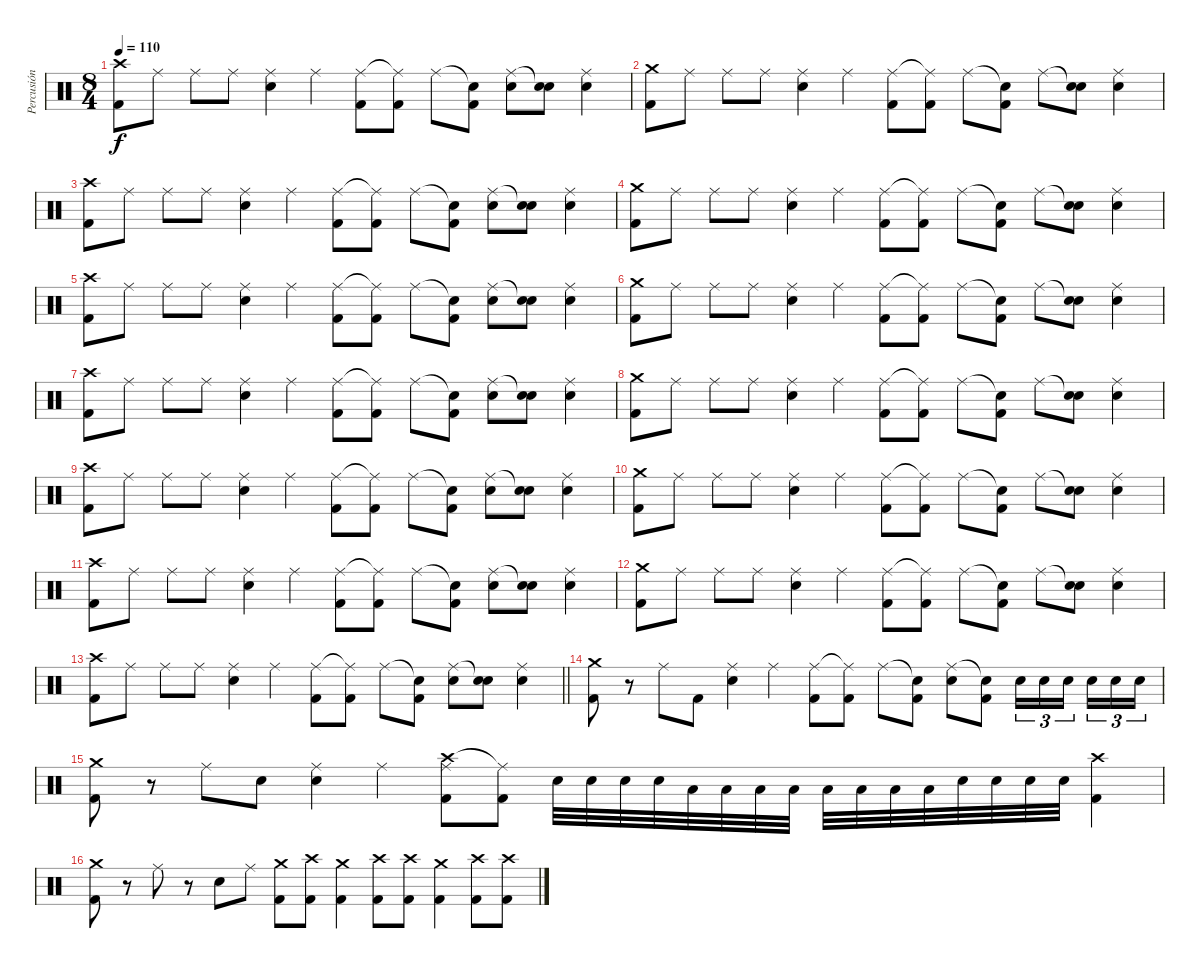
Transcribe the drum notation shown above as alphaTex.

\track ("Percusión" "Percusión") {instrument percussion}
\staff {score}
\articulation defaults
\ts (8 4)
\tempo 110
\clef neutral
\ks c
("Crash high (hit)" "Kick (hit) 2").8{dy f} "Ride (middle)".8 "Ride (middle)".8 "Ride (middle)".8 ("Ride (middle)" "Electric Snare (hit)").4 "Ride (middle)".4 ("Ride (middle)" "Kick (hit) 2").8 ("Ride (middle)"{t} "Kick (hit) 2").8 "Ride (middle)".8 ("Snare (hit)"{t} "Kick (hit) 2").8 ("Ride (middle)" "Electric Snare (hit)").8 ("Snare (hit)"{t} "Electric Snare (hit)").8 ("Ride (middle)" "Electric Snare (hit)").4 |
("Crash medium (hit)" "Kick (hit) 2").8 "Ride (middle)".8 "Ride (middle)".8 "Ride (middle)".8 ("Ride (middle)" "Electric Snare (hit)").4 "Ride (middle)".4 ("Ride (middle)" "Kick (hit) 2").8 ("Ride (middle)"{t} "Kick (hit) 2").8 "Ride (middle)".8 ("Snare (hit)"{t} "Kick (hit) 2").8 "Ride (middle)".8 ("Snare (hit)"{t} "Electric Snare (hit)").8 ("Ride (middle)" "Electric Snare (hit)").4 |
("Crash high (hit)" "Kick (hit) 2").8 "Ride (middle)".8 "Ride (middle)".8 "Ride (middle)".8 ("Ride (middle)" "Electric Snare (hit)").4 "Ride (middle)".4 ("Ride (middle)" "Kick (hit) 2").8 ("Ride (middle)"{t} "Kick (hit) 2").8 "Ride (middle)".8 ("Snare (hit)"{t} "Kick (hit) 2").8 ("Ride (middle)" "Electric Snare (hit)").8 ("Snare (hit)"{t} "Electric Snare (hit)").8 ("Ride (middle)" "Electric Snare (hit)").4 |
("Crash medium (hit)" "Kick (hit) 2").8 "Ride (middle)".8 "Ride (middle)".8 "Ride (middle)".8 ("Ride (middle)" "Electric Snare (hit)").4 "Ride (middle)".4 ("Ride (middle)" "Kick (hit) 2").8 ("Ride (middle)"{t} "Kick (hit) 2").8 "Ride (middle)".8 ("Snare (hit)"{t} "Kick (hit) 2").8 "Ride (middle)".8 ("Snare (hit)"{t} "Electric Snare (hit)").8 ("Ride (middle)" "Electric Snare (hit)").4 |
("Crash high (hit)" "Kick (hit) 2").8 "Ride (middle)".8 "Ride (middle)".8 "Ride (middle)".8 ("Ride (middle)" "Electric Snare (hit)").4 "Ride (middle)".4 ("Ride (middle)" "Kick (hit) 2").8 ("Ride (middle)"{t} "Kick (hit) 2").8 "Ride (middle)".8 ("Snare (hit)"{t} "Kick (hit) 2").8 ("Ride (middle)" "Electric Snare (hit)").8 ("Snare (hit)"{t} "Electric Snare (hit)").8 ("Ride (middle)" "Electric Snare (hit)").4 |
("Crash medium (hit)" "Kick (hit) 2").8 "Ride (middle)".8 "Ride (middle)".8 "Ride (middle)".8 ("Ride (middle)" "Electric Snare (hit)").4 "Ride (middle)".4 ("Ride (middle)" "Kick (hit) 2").8 ("Ride (middle)"{t} "Kick (hit) 2").8 "Ride (middle)".8 ("Snare (hit)"{t} "Kick (hit) 2").8 "Ride (middle)".8 ("Snare (hit)"{t} "Electric Snare (hit)").8 ("Ride (middle)" "Electric Snare (hit)").4 |
("Crash high (hit)" "Kick (hit) 2").8 "Ride (middle)".8 "Ride (middle)".8 "Ride (middle)".8 ("Ride (middle)" "Electric Snare (hit)").4 "Ride (middle)".4 ("Ride (middle)" "Kick (hit) 2").8 ("Ride (middle)"{t} "Kick (hit) 2").8 "Ride (middle)".8 ("Snare (hit)"{t} "Kick (hit) 2").8 ("Ride (middle)" "Electric Snare (hit)").8 ("Snare (hit)"{t} "Electric Snare (hit)").8 ("Ride (middle)" "Electric Snare (hit)").4 |
("Crash medium (hit)" "Kick (hit) 2").8 "Ride (middle)".8 "Ride (middle)".8 "Ride (middle)".8 ("Ride (middle)" "Electric Snare (hit)").4 "Ride (middle)".4 ("Ride (middle)" "Kick (hit) 2").8 ("Ride (middle)"{t} "Kick (hit) 2").8 "Ride (middle)".8 ("Snare (hit)"{t} "Kick (hit) 2").8 "Ride (middle)".8 ("Snare (hit)"{t} "Electric Snare (hit)").8 ("Ride (middle)" "Electric Snare (hit)").4 |
("Crash high (hit)" "Kick (hit) 2").8 "Ride (middle)".8 "Ride (middle)".8 "Ride (middle)".8 ("Ride (middle)" "Electric Snare (hit)").4 "Ride (middle)".4 ("Ride (middle)" "Kick (hit) 2").8 ("Ride (middle)"{t} "Kick (hit) 2").8 "Ride (middle)".8 ("Snare (hit)"{t} "Kick (hit) 2").8 ("Ride (middle)" "Electric Snare (hit)").8 ("Snare (hit)"{t} "Electric Snare (hit)").8 ("Ride (middle)" "Electric Snare (hit)").4 |
("Crash medium (hit)" "Kick (hit) 2").8 "Ride (middle)".8 "Ride (middle)".8 "Ride (middle)".8 ("Ride (middle)" "Electric Snare (hit)").4 "Ride (middle)".4 ("Ride (middle)" "Kick (hit) 2").8 ("Ride (middle)"{t} "Kick (hit) 2").8 "Ride (middle)".8 ("Snare (hit)"{t} "Kick (hit) 2").8 "Ride (middle)".8 ("Snare (hit)"{t} "Electric Snare (hit)").8 ("Ride (middle)" "Electric Snare (hit)").4 |
("Crash high (hit)" "Kick (hit) 2").8 "Ride (middle)".8 "Ride (middle)".8 "Ride (middle)".8 ("Ride (middle)" "Electric Snare (hit)").4 "Ride (middle)".4 ("Ride (middle)" "Kick (hit) 2").8 ("Ride (middle)"{t} "Kick (hit) 2").8 "Ride (middle)".8 ("Snare (hit)"{t} "Kick (hit) 2").8 ("Ride (middle)" "Electric Snare (hit)").8 ("Snare (hit)"{t} "Electric Snare (hit)").8 ("Ride (middle)" "Electric Snare (hit)").4 |
("Crash medium (hit)" "Kick (hit) 2").8 "Ride (middle)".8 "Ride (middle)".8 "Ride (middle)".8 ("Ride (middle)" "Electric Snare (hit)").4 "Ride (middle)".4 ("Ride (middle)" "Kick (hit) 2").8 ("Ride (middle)"{t} "Kick (hit) 2").8 "Ride (middle)".8 ("Snare (hit)"{t} "Kick (hit) 2").8 "Ride (middle)".8 ("Snare (hit)"{t} "Electric Snare (hit)").8 ("Ride (middle)" "Electric Snare (hit)").4 |
\barLineRight lightlight
("Crash high (hit)" "Kick (hit) 2").8 "Ride (middle)".8 "Ride (middle)".8 "Ride (middle)".8 ("Ride (middle)" "Electric Snare (hit)").4 "Ride (middle)".4 ("Ride (middle)" "Kick (hit) 2").8 ("Ride (middle)"{t} "Kick (hit) 2").8 "Ride (middle)".8 ("Snare (hit)"{t} "Kick (hit) 2").8 ("Ride (middle)" "Electric Snare (hit)").8 ("Snare (hit)"{t} "Electric Snare (hit)").8 ("Ride (middle)" "Electric Snare (hit)").4 |
("Crash medium (hit)" "Kick (hit) 2").8 r.8 "Ride (middle)".8 "Kick (hit) 2".8 ("Ride (middle)" "Electric Snare (hit)").4 "Ride (middle)".4 ("Ride (middle)" "Kick (hit) 2").8 ("Ride (middle)"{t} "Kick (hit) 2").8 "Ride (middle)".8 ("Snare (hit)"{t} "Kick (hit) 2").8 ("Ride (middle)" "Electric Snare (hit)").8 ("Snare (hit)"{t} "Kick (hit) 2").8 "Electric Snare (hit)".16{tu (3 2)} "Electric Snare (hit)".16{tu (3 2)} "Electric Snare (hit)".16{tu (3 2) beam splitsecondary} "Electric Snare (hit)".16{tu (3 2)} "Electric Snare (hit)".16{tu (3 2)} "Electric Snare (hit)".16{tu (3 2)} |
("Crash medium (hit)" "Kick (hit) 2").8 r.8 "Ride (middle)".8 "Electric Snare (hit)".8 ("Ride (middle)" "Electric Snare (hit)").4 "Ride (middle)".4 ("Crash high (hit)" "Ride (middle)" "Kick (hit) 2").8 ("Ride (middle)"{t} "Kick (hit) 2").8 "Electric Snare (hit)".32 "Electric Snare (hit)".32 "Electric Snare (hit)".32 "Electric Snare (hit)".32 "Low Tom (hit)".32 "Low Tom (hit)".32 "Low Tom (hit)".32 "Low Tom (hit)".32 "Low Floor Tom (hit)".32 "Low Floor Tom (hit)".32 "Low Floor Tom (hit)".32 "Low Floor Tom (hit)".32 "Electric Snare (hit)".32 "Electric Snare (hit)".32 "Electric Snare (hit)".32 "Electric Snare (hit)".32 ("Crash high (hit)" "Kick (hit) 2").4 |
("Crash medium (hit)" "Kick (hit) 2").8 r.8 "Ride (middle)".8 r.8 "Electric Snare (hit)".8 "Ride (middle)".8 ("Crash medium (hit)" "Kick (hit) 2").8 ("Crash high (hit)" "Kick (hit) 2").8 ("Crash medium (hit)" "Kick (hit) 2").4 ("Crash high (hit)" "Kick (hit) 2").8 ("Crash high (hit)" "Kick (hit) 2").8 ("Crash medium (hit)" "Kick (hit) 2").4 ("Crash high (hit)" "Kick (hit) 2").8 ("Crash high (hit)" "Kick (hit) 2").8
